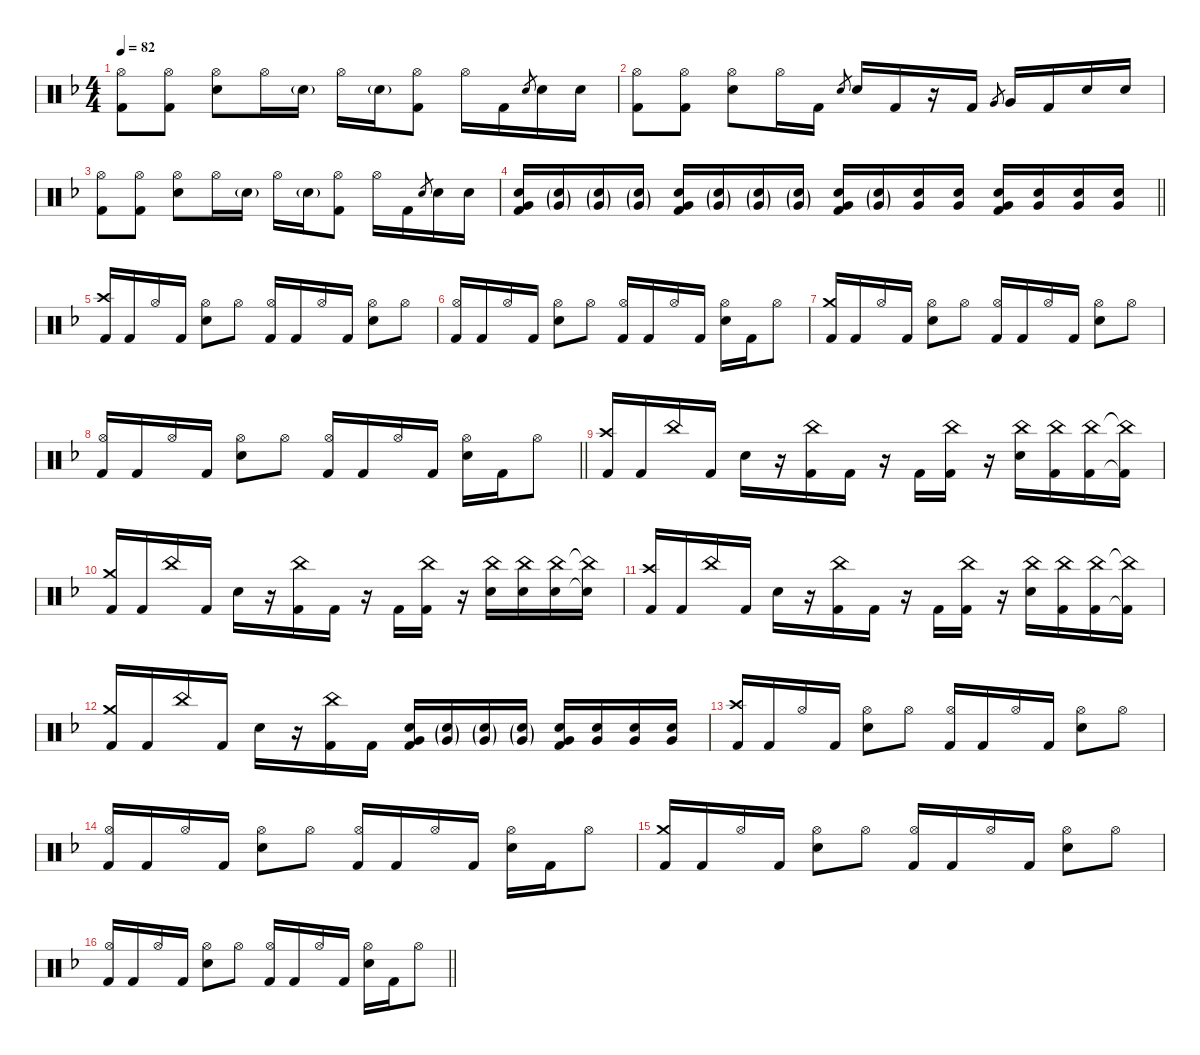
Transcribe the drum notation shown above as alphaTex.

\defaultSystemsLayout 4
\hideDynamics
\bracketExtendMode nobrackets
\singleTrackTrackNamePolicy hidden
\multiTrackTrackNamePolicy hidden
\firstSystemTrackNameMode fullname
\firstSystemTrackNameOrientation horizontal
\otherSystemsTrackNameOrientation horizontal
\track ("Drums" "drm.") {defaultSystemsLayout 4 instrument percussion}
\staff {score}
\articulation defaults
\ts (4 4)
\beaming (8 2 2 2 2)
\tempo 82
\clef neutral
\ks dminor
("Hi-Hat (open)"{acc forcenatural} "Kick (hit) 2"{acc forcenatural}).8{dy mp beam Down} ("Hi-Hat (open)"{acc forcenatural} "Kick (hit) 2"{acc forcenatural}).8{beam Down} ("Hi-Hat (open)"{acc forcenatural} "Snare (hit) 2"{acc forcenatural}).8{beam Down} "Hi-Hat (open)"{acc forcenatural}.16{beam Down} "Snare (hit) 2"{g acc forcenatural}.16{dy mf beam Down} "Hi-Hat (open)"{acc forcenatural}.16{dy mp beam Down} "Snare (hit) 2"{g acc forcenatural}.16{dy mf beam Down} ("Hi-Hat (open)"{acc forcenatural} "Kick (hit) 2"{acc forcenatural}).8{dy mp beam Down} "Hi-Hat (open)"{acc forcenatural}.16{beam Down} "Kick (hit) 2"{acc forcenatural}.16{dy f beam Down} "Electric Snare (hit)"{acc forcenatural}.8{gr dy mf beam Up} "Snare (hit) 2"{acc forcenatural}.16{dy f beam Down} "Snare (hit) 2"{acc forcenatural}.16{beam Down} |
("Hi-Hat (open)"{acc forcenatural} "Kick (hit) 2"{acc forcenatural}).8{dy mp beam Down} ("Hi-Hat (open)"{acc forcenatural} "Kick (hit) 2"{acc forcenatural}).8{beam Down} ("Hi-Hat (open)"{acc forcenatural} "Snare (hit) 2"{acc forcenatural}).8{beam Down} "Hi-Hat (open)"{acc forcenatural}.16{beam Down} "Kick (hit) 2"{acc forcenatural}.16{dy f beam Down} "Electric Snare (hit)"{acc forcenatural}.8{gr dy mf beam Up} "Snare (hit) 2"{acc forcenatural}.16{dy f beam Up} "Kick (hit) 2"{acc forcenatural}.16{beam Up} r.16{beam Up} "Kick (hit) 2"{acc forcenatural}.16{beam Up} "Very Low Tom (hit)"{acc forcenatural}.8{gr dy mf beam Up} "Very Low Tom (hit)"{acc forcenatural}.16{dy f beam Up} "Kick (hit) 2"{acc forcenatural}.16{beam Up} "Snare (hit) 2"{acc forcenatural}.16{beam Up} "Snare (hit) 2"{acc forcenatural}.16{beam Up} |
("Hi-Hat (open)"{acc forcenatural} "Kick (hit) 2"{acc forcenatural}).8{dy mp beam Down} ("Hi-Hat (open)"{acc forcenatural} "Kick (hit) 2"{acc forcenatural}).8{beam Down} ("Hi-Hat (open)"{acc forcenatural} "Snare (hit) 2"{acc forcenatural}).8{beam Down} "Hi-Hat (open)"{acc forcenatural}.16{beam Down} "Snare (hit) 2"{g acc forcenatural}.16{dy mf beam Down} "Hi-Hat (open)"{acc forcenatural}.16{dy mp beam Down} "Snare (hit) 2"{g acc forcenatural}.16{dy mf beam Down} ("Hi-Hat (open)"{acc forcenatural} "Kick (hit) 2"{acc forcenatural}).8{dy mp beam Down} "Hi-Hat (open)"{acc forcenatural}.16{beam Down} "Kick (hit) 2"{acc forcenatural}.16{dy f beam Down} "Electric Snare (hit)"{acc forcenatural}.8{gr dy mf beam Up} "Snare (hit) 2"{acc forcenatural}.16{dy f beam Down} "Snare (hit) 2"{acc forcenatural}.16{beam Down} |
\barLineRight lightlight
("Snare (hit) 2"{acc forcenatural} "Very Low Tom (hit)"{acc forcenatural} "Kick (hit) 2"{acc forcenatural}).16{beam Up} ("Snare (hit) 2"{g acc forcenatural} "Very Low Tom (hit)"{g acc forcenatural}).16{dy mf beam Up} ("Snare (hit) 2"{g acc forcenatural} "Very Low Tom (hit)"{g acc forcenatural}).16{beam Up} ("Snare (hit) 2"{g acc forcenatural} "Very Low Tom (hit)"{g acc forcenatural}).16{beam Up} ("Snare (hit) 2"{acc forcenatural} "Very Low Tom (hit)"{acc forcenatural} "Kick (hit) 2"{acc forcenatural}).16{dy f beam Up} ("Snare (hit) 2"{g acc forcenatural} "Very Low Tom (hit)"{g acc forcenatural}).16{dy mf beam Up} ("Snare (hit) 2"{g acc forcenatural} "Very Low Tom (hit)"{g acc forcenatural}).16{beam Up} ("Snare (hit) 2"{g acc forcenatural} "Very Low Tom (hit)"{g acc forcenatural}).16{beam Up} ("Snare (hit) 2"{acc forcenatural} "Very Low Tom (hit)"{acc forcenatural} "Kick (hit) 2"{acc forcenatural}).16{dy f beam Up} ("Snare (hit) 2"{g acc forcenatural} "Very Low Tom (hit)"{g acc forcenatural}).16{dy mf beam Up} ("Snare (hit) 2"{acc forcenatural} "Very Low Tom (hit)"{acc forcenatural}).16{dy f beam Up} ("Snare (hit) 2"{acc forcenatural} "Very Low Tom (hit)"{acc forcenatural}).16{beam Up} ("Snare (hit) 2"{acc forcenatural} "Very Low Tom (hit)"{acc forcenatural} "Kick (hit) 2"{acc forcenatural}).16{dy ff beam Up} ("Snare (hit) 2"{acc forcenatural} "Very Low Tom (hit)"{acc forcenatural}).16{beam Up} ("Snare (hit) 2"{acc forcenatural} "Very Low Tom (hit)"{acc forcenatural}).16{dy fff beam Up} ("Snare (hit) 2"{acc forcenatural} "Very Low Tom (hit)"{acc forcenatural}).16{beam Up} |
("Crash high (hit)"{acc forcenatural} "Kick (hit) 2"{acc forcenatural}).16{dy f beam Up} "Kick (hit) 2"{acc forcenatural}.16{beam Up} "Hi-Hat (open)"{acc forcenatural}.16{dy mp beam Up} "Kick (hit) 2"{acc forcenatural}.16{dy f beam Up} ("Hi-Hat (open)"{acc forcenatural} "Snare (hit) 2"{acc forcenatural}).8{dy mp beam Down} "Hi-Hat (open)"{acc forcenatural}.8{beam Down} ("Hi-Hat (open)"{acc forcenatural} "Kick (hit) 2"{acc forcenatural}).16{beam Up} "Kick (hit) 2"{acc forcenatural}.16{dy f beam Up} "Hi-Hat (open)"{acc forcenatural}.16{dy mp beam Up} "Kick (hit) 2"{acc forcenatural}.16{dy f beam Up} ("Hi-Hat (open)"{acc forcenatural} "Snare (hit) 2"{acc forcenatural}).8{dy mp beam Down} "Hi-Hat (open)"{acc forcenatural}.8{beam Down} |
("Hi-Hat (open)"{acc forcenatural} "Kick (hit) 2"{acc forcenatural}).16{beam Up} "Kick (hit) 2"{acc forcenatural}.16{dy f beam Up} "Hi-Hat (open)"{acc forcenatural}.16{dy mp beam Up} "Kick (hit) 2"{acc forcenatural}.16{dy f beam Up} ("Hi-Hat (open)"{acc forcenatural} "Snare (hit) 2"{acc forcenatural}).8{dy mp beam Down} "Hi-Hat (open)"{acc forcenatural}.8{beam Down} ("Hi-Hat (open)"{acc forcenatural} "Kick (hit) 2"{acc forcenatural}).16{beam Up} "Kick (hit) 2"{acc forcenatural}.16{dy f beam Up} "Hi-Hat (open)"{acc forcenatural}.16{dy mp beam Up} "Kick (hit) 2"{acc forcenatural}.16{dy f beam Up} ("Hi-Hat (open)"{acc forcenatural} "Snare (hit) 2"{acc forcenatural}).16{dy mp beam Down} "Kick (hit) 2"{acc forcenatural}.16{dy f beam Down} "Hi-Hat (open)"{acc forcenatural}.8{dy mp beam Down} |
("Crash medium (hit)"{acc forcenatural} "Kick (hit) 2"{acc forcenatural}).16{dy f beam Up} "Kick (hit) 2"{acc forcenatural}.16{beam Up} "Hi-Hat (open)"{acc forcenatural}.16{dy mp beam Up} "Kick (hit) 2"{acc forcenatural}.16{dy f beam Up} ("Hi-Hat (open)"{acc forcenatural} "Snare (hit) 2"{acc forcenatural}).8{dy mp beam Down} "Hi-Hat (open)"{acc forcenatural}.8{beam Down} ("Hi-Hat (open)"{acc forcenatural} "Kick (hit) 2"{acc forcenatural}).16{beam Up} "Kick (hit) 2"{acc forcenatural}.16{dy f beam Up} "Hi-Hat (open)"{acc forcenatural}.16{dy mp beam Up} "Kick (hit) 2"{acc forcenatural}.16{dy f beam Up} ("Hi-Hat (open)"{acc forcenatural} "Snare (hit) 2"{acc forcenatural}).8{dy mp beam Down} "Hi-Hat (open)"{acc forcenatural}.8{beam Down} |
\barLineRight lightlight
("Hi-Hat (open)"{acc forcenatural} "Kick (hit) 2"{acc forcenatural}).16{beam Up} "Kick (hit) 2"{acc forcenatural}.16{dy f beam Up} "Hi-Hat (open)"{acc forcenatural}.16{dy mp beam Up} "Kick (hit) 2"{acc forcenatural}.16{dy f beam Up} ("Hi-Hat (open)"{acc forcenatural} "Snare (hit) 2"{acc forcenatural}).8{dy mp beam Down} "Hi-Hat (open)"{acc forcenatural}.8{beam Down} ("Hi-Hat (open)"{acc forcenatural} "Kick (hit) 2"{acc forcenatural}).16{beam Up} "Kick (hit) 2"{acc forcenatural}.16{dy f beam Up} "Hi-Hat (open)"{acc forcenatural}.16{dy mp beam Up} "Kick (hit) 2"{acc forcenatural}.16{dy f beam Up} ("Hi-Hat (open)"{acc forcenatural} "Snare (hit) 2"{acc forcenatural}).16{dy mp beam Down} "Kick (hit) 2"{acc forcenatural}.16{dy f beam Down} "Hi-Hat (open)"{acc forcenatural}.8{dy mp beam Down} |
("Crash high (hit)"{acc forcenatural} "Kick (hit) 2"{acc forcenatural}).16{dy f beam Up} "Kick (hit) 2"{acc forcenatural}.16{beam Up} "China (hit)"{acc forcenatural}.16{dy mf beam Up} "Kick (hit) 2"{acc forcenatural}.16{dy f beam Up} "Snare (hit) 2"{acc forcenatural}.16{beam Down} r.16{beam Down} ("China (hit)"{acc forcenatural} "Kick (hit) 2"{acc forcenatural}).16{dy mf beam Down} "Kick (hit) 2"{acc forcenatural}.16{dy f beam Down} r.16{beam Down} "Kick (hit) 2"{acc forcenatural}.16{beam Down} ("China (hit)"{acc forcenatural} "Kick (hit) 2"{acc forcenatural}).16{dy mf beam Down} r.16{beam Down} ("China (hit)"{acc forcenatural} "Snare (hit) 2"{acc forcenatural}).16{beam Down} ("China (hit)"{acc forcenatural} "Kick (hit) 2"{acc forcenatural}).16{beam Down} ("China (hit)"{acc forcenatural} "Kick (hit) 2"{acc forcenatural}).16{beam Down} ("China (hit)"{t acc forcenatural} "Kick (hit) 2"{t acc forcenatural}).16{dy f beam Down} |
("Crash medium (hit)"{acc forcenatural} "Kick (hit) 2"{acc forcenatural}).16{beam Up} "Kick (hit) 2"{acc forcenatural}.16{beam Up} "China (hit)"{acc forcenatural}.16{dy mf beam Up} "Kick (hit) 2"{acc forcenatural}.16{dy f beam Up} "Snare (hit) 2"{acc forcenatural}.16{beam Down} r.16{beam Down} ("China (hit)"{acc forcenatural} "Kick (hit) 2"{acc forcenatural}).16{dy mf beam Down} "Kick (hit) 2"{acc forcenatural}.16{dy f beam Down} r.16{beam Down} "Kick (hit) 2"{acc forcenatural}.16{beam Down} ("China (hit)"{acc forcenatural} "Kick (hit) 2"{acc forcenatural}).16{dy mf beam Down} r.16{beam Down} ("China (hit)"{acc forcenatural} "Snare (hit) 2"{acc forcenatural}).16{beam Down} ("China (hit)"{acc forcenatural} "Snare (hit) 2"{acc forcenatural}).16{beam Down} ("China (hit)"{acc forcenatural} "Snare (hit) 2"{acc forcenatural}).16{beam Down} ("China (hit)"{t acc forcenatural} "Snare (hit) 2"{t acc forcenatural}).16{dy f beam Down} |
("Crash high (hit)"{acc forcenatural} "Kick (hit) 2"{acc forcenatural}).16{beam Up} "Kick (hit) 2"{acc forcenatural}.16{beam Up} "China (hit)"{acc forcenatural}.16{dy mf beam Up} "Kick (hit) 2"{acc forcenatural}.16{dy f beam Up} "Snare (hit) 2"{acc forcenatural}.16{beam Down} r.16{beam Down} ("China (hit)"{acc forcenatural} "Kick (hit) 2"{acc forcenatural}).16{dy mf beam Down} "Kick (hit) 2"{acc forcenatural}.16{dy f beam Down} r.16{beam Down} "Kick (hit) 2"{acc forcenatural}.16{beam Down} ("China (hit)"{acc forcenatural} "Kick (hit) 2"{acc forcenatural}).16{dy mf beam Down} r.16{beam Down} ("China (hit)"{acc forcenatural} "Snare (hit) 2"{acc forcenatural}).16{beam Down} ("China (hit)"{acc forcenatural} "Kick (hit) 2"{acc forcenatural}).16{beam Down} ("China (hit)"{acc forcenatural} "Kick (hit) 2"{acc forcenatural}).16{beam Down} ("China (hit)"{t acc forcenatural} "Kick (hit) 2"{t acc forcenatural}).16{dy f beam Down} |
("Crash medium (hit)"{acc forcenatural} "Kick (hit) 2"{acc forcenatural}).16{beam Up} "Kick (hit) 2"{acc forcenatural}.16{beam Up} "China (hit)"{acc forcenatural}.16{dy mf beam Up} "Kick (hit) 2"{acc forcenatural}.16{dy f beam Up} "Snare (hit) 2"{acc forcenatural}.16{beam Down} r.16{beam Down} ("China (hit)"{acc forcenatural} "Kick (hit) 2"{acc forcenatural}).16{dy mf beam Down} "Kick (hit) 2"{acc forcenatural}.16{dy f beam Down} ("Snare (hit) 2"{acc forcenatural} "Very Low Tom (hit)"{acc forcenatural} "Kick (hit) 2"{acc forcenatural}).16{beam Up} ("Snare (hit) 2"{g acc forcenatural} "Very Low Tom (hit)"{g acc forcenatural}).16{dy mf beam Up} ("Snare (hit) 2"{g acc forcenatural} "Very Low Tom (hit)"{g acc forcenatural}).16{beam Up} ("Snare (hit) 2"{g acc forcenatural} "Very Low Tom (hit)"{g acc forcenatural}).16{beam Up} ("Snare (hit) 2"{acc forcenatural} "Very Low Tom (hit)"{acc forcenatural} "Kick (hit) 2"{acc forcenatural}).16{dy ff beam Up} ("Snare (hit) 2"{acc forcenatural} "Very Low Tom (hit)"{acc forcenatural}).16{beam Up} ("Snare (hit) 2"{acc forcenatural} "Very Low Tom (hit)"{acc forcenatural}).16{dy fff beam Up} ("Snare (hit) 2"{acc forcenatural} "Very Low Tom (hit)"{acc forcenatural}).16{beam Up} |
("Crash high (hit)"{acc forcenatural} "Kick (hit) 2"{acc forcenatural}).16{dy f beam Up} "Kick (hit) 2"{acc forcenatural}.16{beam Up} "Hi-Hat (open)"{acc forcenatural}.16{dy mp beam Up} "Kick (hit) 2"{acc forcenatural}.16{dy f beam Up} ("Hi-Hat (open)"{acc forcenatural} "Snare (hit) 2"{acc forcenatural}).8{dy mp beam Down} "Hi-Hat (open)"{acc forcenatural}.8{beam Down} ("Hi-Hat (open)"{acc forcenatural} "Kick (hit) 2"{acc forcenatural}).16{beam Up} "Kick (hit) 2"{acc forcenatural}.16{dy f beam Up} "Hi-Hat (open)"{acc forcenatural}.16{dy mp beam Up} "Kick (hit) 2"{acc forcenatural}.16{dy f beam Up} ("Hi-Hat (open)"{acc forcenatural} "Snare (hit) 2"{acc forcenatural}).8{dy mp beam Down} "Hi-Hat (open)"{acc forcenatural}.8{beam Down} |
("Hi-Hat (open)"{acc forcenatural} "Kick (hit) 2"{acc forcenatural}).16{beam Up} "Kick (hit) 2"{acc forcenatural}.16{dy f beam Up} "Hi-Hat (open)"{acc forcenatural}.16{dy mp beam Up} "Kick (hit) 2"{acc forcenatural}.16{dy f beam Up} ("Hi-Hat (open)"{acc forcenatural} "Snare (hit) 2"{acc forcenatural}).8{dy mp beam Down} "Hi-Hat (open)"{acc forcenatural}.8{beam Down} ("Hi-Hat (open)"{acc forcenatural} "Kick (hit) 2"{acc forcenatural}).16{beam Up} "Kick (hit) 2"{acc forcenatural}.16{dy f beam Up} "Hi-Hat (open)"{acc forcenatural}.16{dy mp beam Up} "Kick (hit) 2"{acc forcenatural}.16{dy f beam Up} ("Hi-Hat (open)"{acc forcenatural} "Snare (hit) 2"{acc forcenatural}).16{dy mp beam Down} "Kick (hit) 2"{acc forcenatural}.16{dy f beam Down} "Hi-Hat (open)"{acc forcenatural}.8{dy mp beam Down} |
("Crash medium (hit)"{acc forcenatural} "Kick (hit) 2"{acc forcenatural}).16{dy f beam Up} "Kick (hit) 2"{acc forcenatural}.16{beam Up} "Hi-Hat (open)"{acc forcenatural}.16{dy mp beam Up} "Kick (hit) 2"{acc forcenatural}.16{dy f beam Up} ("Hi-Hat (open)"{acc forcenatural} "Snare (hit) 2"{acc forcenatural}).8{dy mp beam Down} "Hi-Hat (open)"{acc forcenatural}.8{beam Down} ("Hi-Hat (open)"{acc forcenatural} "Kick (hit) 2"{acc forcenatural}).16{beam Up} "Kick (hit) 2"{acc forcenatural}.16{dy f beam Up} "Hi-Hat (open)"{acc forcenatural}.16{dy mp beam Up} "Kick (hit) 2"{acc forcenatural}.16{dy f beam Up} ("Hi-Hat (open)"{acc forcenatural} "Snare (hit) 2"{acc forcenatural}).8{dy mp beam Down} "Hi-Hat (open)"{acc forcenatural}.8{beam Down} |
\barLineRight lightlight
("Hi-Hat (open)"{acc forcenatural} "Kick (hit) 2"{acc forcenatural}).16{beam Up} "Kick (hit) 2"{acc forcenatural}.16{dy f beam Up} "Hi-Hat (open)"{acc forcenatural}.16{dy mp beam Up} "Kick (hit) 2"{acc forcenatural}.16{dy f beam Up} ("Hi-Hat (open)"{acc forcenatural} "Snare (hit) 2"{acc forcenatural}).8{dy mp beam Down} "Hi-Hat (open)"{acc forcenatural}.8{beam Down} ("Hi-Hat (open)"{acc forcenatural} "Kick (hit) 2"{acc forcenatural}).16{beam Up} "Kick (hit) 2"{acc forcenatural}.16{dy f beam Up} "Hi-Hat (open)"{acc forcenatural}.16{dy mp beam Up} "Kick (hit) 2"{acc forcenatural}.16{dy f beam Up} ("Hi-Hat (open)"{acc forcenatural} "Snare (hit) 2"{acc forcenatural}).16{dy mp beam Down} "Kick (hit) 2"{acc forcenatural}.16{dy f beam Down} "Hi-Hat (open)"{acc forcenatural}.8{dy mp beam Down}
